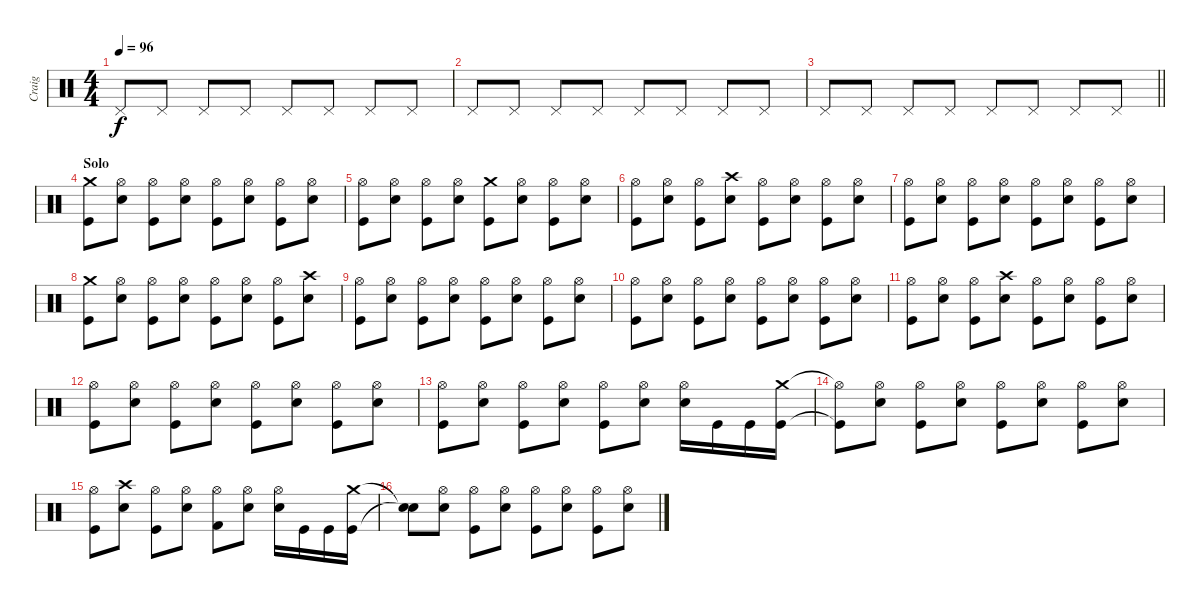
\track ("Craig" "Craig") {instrument percussion}
\staff {score}
\articulation defaults
\ts (4 4)
\tempo 96
\clef neutral
\ks c "Pedal Hi-Hat (hit)".8{dy f} "Pedal Hi-Hat (hit)".8 "Pedal Hi-Hat (hit)".8 "Pedal Hi-Hat (hit)".8 "Pedal Hi-Hat (hit)".8 "Pedal Hi-Hat (hit)".8 "Pedal Hi-Hat (hit)".8 "Pedal Hi-Hat (hit)".8
|
"Pedal Hi-Hat (hit)".8 "Pedal Hi-Hat (hit)".8 "Pedal Hi-Hat (hit)".8 "Pedal Hi-Hat (hit)".8 "Pedal Hi-Hat (hit)".8 "Pedal Hi-Hat (hit)".8 "Pedal Hi-Hat (hit)".8 "Pedal Hi-Hat (hit)".8 |
\barLineRight lightlight "Pedal Hi-Hat (hit)".8 "Pedal Hi-Hat (hit)".8 "Pedal Hi-Hat (hit)".8 "Pedal Hi-Hat (hit)".8 "Pedal Hi-Hat (hit)".8 "Pedal Hi-Hat (hit)".8 "Pedal Hi-Hat (hit)".8 "Pedal Hi-Hat (hit)".8
|
\section ("" "Solo")
("Crash medium (hit)" "Kick (hit)").8 ("Hi-Hat (open)" "Snare (hit) 2").8 ("Hi-Hat (open)" "Kick (hit)").8 ("Hi-Hat (open)" "Snare (hit) 2").8 ("Hi-Hat (open)" "Kick (hit)").8 ("Hi-Hat (open)" "Snare (hit) 2").8 ("Hi-Hat (open)" "Kick (hit)").8 ("Hi-Hat (open)" "Snare (hit) 2").8 |
("Hi-Hat (open)" "Kick (hit)").8 ("Hi-Hat (open)" "Snare (hit) 2").8 ("Hi-Hat (open)" "Kick (hit)").8 ("Hi-Hat (open)" "Snare (hit) 2").8 ("Crash medium (hit)" "Kick (hit)").8 ("Hi-Hat (open)" "Snare (hit) 2").8 ("Hi-Hat (open)" "Kick (hit)").8 ("Hi-Hat (open)" "Snare (hit) 2").8 |
("Hi-Hat (open)" "Kick (hit)").8 ("Hi-Hat (open)" "Snare (hit) 2").8 ("Hi-Hat (open)" "Kick (hit)").8 ("Crash high (hit)" "Snare (hit) 2").8 ("Hi-Hat (open)" "Kick (hit)").8 ("Hi-Hat (open)" "Snare (hit) 2").8 ("Hi-Hat (open)" "Kick (hit)").8 ("Hi-Hat (open)" "Snare (hit) 2").8 |
("Hi-Hat (open)" "Kick (hit)").8 ("Hi-Hat (open)" "Snare (hit) 2").8 ("Hi-Hat (open)" "Kick (hit)").8 ("Hi-Hat (open)" "Snare (hit) 2").8 ("Hi-Hat (open)" "Kick (hit)").8 ("Hi-Hat (open)" "Snare (hit) 2").8 ("Hi-Hat (open)" "Kick (hit)").8 ("Hi-Hat (open)" "Snare (hit) 2").8 |
("Crash medium (hit)" "Kick (hit)").8 ("Hi-Hat (open)" "Snare (hit) 2").8 ("Hi-Hat (open)" "Kick (hit)").8 ("Hi-Hat (open)" "Snare (hit) 2").8 ("Hi-Hat (open)" "Kick (hit)").8 ("Hi-Hat (open)" "Snare (hit) 2").8 ("Hi-Hat (open)" "Kick (hit)").8 ("Crash high (hit)" "Snare (hit) 2").8 |
("Hi-Hat (open)" "Kick (hit)").8 ("Hi-Hat (open)" "Snare (hit) 2").8 ("Hi-Hat (open)" "Kick (hit)").8 ("Hi-Hat (open)" "Snare (hit) 2").8 ("Hi-Hat (open)" "Kick (hit)").8 ("Hi-Hat (open)" "Snare (hit) 2").8 ("Hi-Hat (open)" "Kick (hit)").8 ("Hi-Hat (open)" "Snare (hit) 2").8 |
("Hi-Hat (open)" "Kick (hit)").8 ("Hi-Hat (open)" "Snare (hit) 2").8 ("Hi-Hat (open)" "Kick (hit)").8 ("Hi-Hat (open)" "Snare (hit) 2").8 ("Hi-Hat (open)" "Kick (hit)").8 ("Hi-Hat (open)" "Snare (hit) 2").8 ("Hi-Hat (open)" "Kick (hit)").8 ("Hi-Hat (open)" "Snare (hit) 2").8 |
("Hi-Hat (open)" "Kick (hit)").8 ("Hi-Hat (open)" "Snare (hit) 2").8 ("Hi-Hat (open)" "Kick (hit)").8 ("Crash high (hit)" "Snare (hit) 2").8 ("Hi-Hat (open)" "Kick (hit)").8 ("Hi-Hat (open)" "Snare (hit) 2").8 ("Hi-Hat (open)" "Kick (hit)").8 ("Hi-Hat (open)" "Snare (hit) 2").8 |
("Hi-Hat (open)" "Kick (hit)").8 ("Hi-Hat (open)" "Snare (hit) 2").8 ("Hi-Hat (open)" "Kick (hit)").8 ("Hi-Hat (open)" "Snare (hit) 2").8 ("Hi-Hat (open)" "Kick (hit)").8 ("Hi-Hat (open)" "Snare (hit) 2").8 ("Hi-Hat (open)" "Kick (hit)").8 ("Hi-Hat (open)" "Snare (hit) 2").8 |
("Hi-Hat (open)" "Kick (hit)").8 ("Hi-Hat (open)" "Snare (hit) 2").8 ("Hi-Hat (open)" "Kick (hit)").8 ("Hi-Hat (open)" "Snare (hit) 2").8 ("Hi-Hat (open)" "Kick (hit)").8 ("Hi-Hat (open)" "Snare (hit) 2").8 ("Hi-Hat (open)" "Snare (hit) 2").16 "Kick (hit)".16 "Kick (hit)".16 ("Crash medium (hit)" "Kick (hit)").16 |
("Hi-Hat (open)"{t} "Kick (hit)"{t}).8 ("Hi-Hat (open)" "Snare (hit) 2").8 ("Hi-Hat (open)" "Kick (hit)").8 ("Hi-Hat (open)" "Snare (hit) 2").8 ("Hi-Hat (open)" "Kick (hit)").8 ("Hi-Hat (open)" "Snare (hit) 2").8 ("Hi-Hat (open)" "Kick (hit)").8 ("Hi-Hat (open)" "Snare (hit) 2").8 |
("Hi-Hat (open)" "Kick (hit)").8 ("Crash high (hit)" "Snare (hit) 2").8 ("Hi-Hat (open)" "Kick (hit)").8 ("Hi-Hat (open)" "Snare (hit) 2").8 ("Hi-Hat (open)" "Kick (hit) 2").8 ("Hi-Hat (open)" "Snare (hit) 2").8 ("Hi-Hat (open)" "Snare (hit) 2").16 "Kick (hit)".16 "Kick (hit)".16 ("Crash medium (hit)" "Kick (hit)").16 |
("Snare (hit)"{t} "Snare (hit)"{t}).8 ("Hi-Hat (open)" "Snare (hit) 2").8 ("Hi-Hat (open)" "Kick (hit)").8 ("Hi-Hat (open)" "Snare (hit) 2").8 ("Hi-Hat (open)" "Kick (hit)").8 ("Hi-Hat (open)" "Snare (hit) 2").8 ("Hi-Hat (open)" "Kick (hit)").8 ("Hi-Hat (open)" "Snare (hit) 2").8
